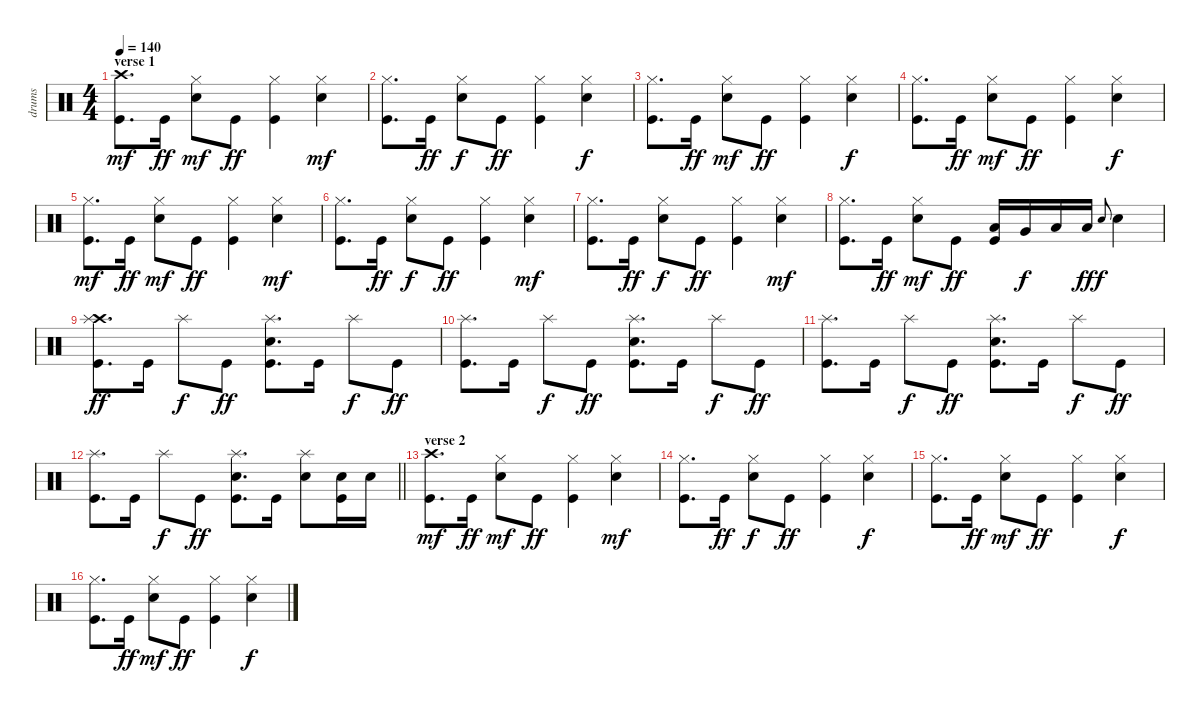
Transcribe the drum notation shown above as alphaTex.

\track ("drums" "drums") {instrument percussion}
\staff {score}
\articulation defaults
\ts (4 4)
\section ("" "verse 1")
\tempo 140
\clef neutral
\ks c
("Crash high (hit)" "Kick (hit)").8{d dy mf} "Kick (hit)".16{dy ff} ("Hi-Hat (closed)" "Electric Snare (hit)").8{dy mf} "Kick (hit)".8{dy ff} ("Hi-Hat (closed)" "Kick (hit)").4 ("Hi-Hat (closed)" "Electric Snare (hit)").4{dy mf} |
("Hi-Hat (closed)" "Kick (hit)").8{d} "Kick (hit)".16{dy ff} ("Hi-Hat (closed)" "Electric Snare (hit)").8{dy f} "Kick (hit)".8{dy ff} ("Hi-Hat (closed)" "Kick (hit)").4 ("Hi-Hat (closed)" "Electric Snare (hit)").4{dy f} |
("Hi-Hat (closed)" "Kick (hit)").8{d} "Kick (hit)".16{dy ff} ("Hi-Hat (closed)" "Electric Snare (hit)").8{dy mf} "Kick (hit)".8{dy ff} ("Hi-Hat (closed)" "Kick (hit)").4 ("Hi-Hat (closed)" "Electric Snare (hit)").4{dy f} |
("Hi-Hat (closed)" "Kick (hit)").8{d} "Kick (hit)".16{dy ff} ("Hi-Hat (closed)" "Electric Snare (hit)").8{dy mf} "Kick (hit)".8{dy ff} ("Hi-Hat (closed)" "Kick (hit)").4 ("Hi-Hat (closed)" "Electric Snare (hit)").4{dy f} |
("Hi-Hat (closed)" "Kick (hit)").8{d dy mf} "Kick (hit)".16{dy ff} ("Hi-Hat (closed)" "Electric Snare (hit)").8{dy mf} "Kick (hit)".8{dy ff} ("Hi-Hat (closed)" "Kick (hit)").4 ("Hi-Hat (closed)" "Electric Snare (hit)").4{dy mf} |
("Hi-Hat (closed)" "Kick (hit)").8{d} "Kick (hit)".16{dy ff} ("Hi-Hat (closed)" "Electric Snare (hit)").8{dy f} "Kick (hit)".8{dy ff} ("Hi-Hat (closed)" "Kick (hit)").4 ("Hi-Hat (closed)" "Electric Snare (hit)").4{dy mf} |
("Hi-Hat (closed)" "Kick (hit)").8{d} "Kick (hit)".16{dy ff} ("Hi-Hat (closed)" "Electric Snare (hit)").8{dy f} "Kick (hit)".8{dy ff} ("Hi-Hat (closed)" "Kick (hit)").4 ("Hi-Hat (closed)" "Electric Snare (hit)").4{dy mf} |
("Hi-Hat (closed)" "Kick (hit)").8{d} "Kick (hit)".16{dy ff} ("Hi-Hat (closed)" "Electric Snare (hit)").8{dy mf} "Kick (hit)".8{dy ff} ("Low Tom (hit)" "Kick (hit)").16 "Very Low Tom (hit)".16{dy f} "Low Floor Tom (hit)".16 "Low Floor Tom (hit)".16{dy ff} "Electric Snare (hit)".8{gr onbeat dy f} "Electric Snare (hit)".4 |
("Crash high (hit)" "Splash (hit)" "Kick (hit)").8{d dy ff} "Kick (hit)".16 "Splash (hit)".8{dy f} "Kick (hit)".8{dy ff} ("Splash (hit)" "Electric Snare (hit)" "Kick (hit)").8{d} "Kick (hit)".16 "Splash (hit)".8{dy f} "Kick (hit)".8{dy ff} |
("Splash (hit)" "Kick (hit)").8{d} "Kick (hit)".16 "Splash (hit)".8{dy f} "Kick (hit)".8{dy ff} ("Splash (hit)" "Electric Snare (hit)" "Kick (hit)").8{d} "Kick (hit)".16 "Splash (hit)".8{dy f} "Kick (hit)".8{dy ff} |
("Splash (hit)" "Kick (hit)").8{d} "Kick (hit)".16 "Splash (hit)".8{dy f} "Kick (hit)".8{dy ff} ("Splash (hit)" "Electric Snare (hit)" "Kick (hit)").8{d} "Kick (hit)".16 "Splash (hit)".8{dy f} "Kick (hit)".8{dy ff} |
\barLineRight lightlight
("Splash (hit)" "Kick (hit)").8{d} "Kick (hit)".16 "Splash (hit)".8{dy f} "Kick (hit)".8{dy ff} ("Splash (hit)" "Electric Snare (hit)" "Kick (hit)").8{d} "Kick (hit)".16 ("Splash (hit)" "Electric Snare (hit)").8 ("Electric Snare (hit)" "Kick (hit)").16 "Electric Snare (hit)".16 |
\section ("" "verse 2")
("Crash high (hit)" "Kick (hit)").8{d dy mf} "Kick (hit)".16{dy ff} ("Hi-Hat (closed)" "Electric Snare (hit)").8{dy mf} "Kick (hit)".8{dy ff} ("Hi-Hat (closed)" "Kick (hit)").4 ("Hi-Hat (closed)" "Electric Snare (hit)").4{dy mf} |
("Hi-Hat (closed)" "Kick (hit)").8{d} "Kick (hit)".16{dy ff} ("Hi-Hat (closed)" "Electric Snare (hit)").8{dy f} "Kick (hit)".8{dy ff} ("Hi-Hat (closed)" "Kick (hit)").4 ("Hi-Hat (closed)" "Electric Snare (hit)").4{dy f} |
("Hi-Hat (closed)" "Kick (hit)").8{d} "Kick (hit)".16{dy ff} ("Hi-Hat (closed)" "Electric Snare (hit)").8{dy mf} "Kick (hit)".8{dy ff} ("Hi-Hat (closed)" "Kick (hit)").4 ("Hi-Hat (closed)" "Electric Snare (hit)").4{dy f} |
("Hi-Hat (closed)" "Kick (hit)").8{d} "Kick (hit)".16{dy ff} ("Hi-Hat (closed)" "Electric Snare (hit)").8{dy mf} "Kick (hit)".8{dy ff} ("Hi-Hat (closed)" "Kick (hit)").4 ("Hi-Hat (closed)" "Electric Snare (hit)").4{dy f}
